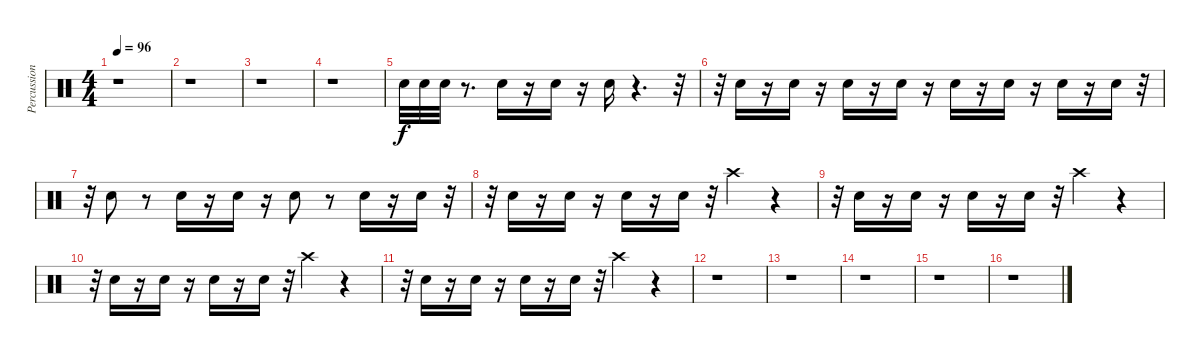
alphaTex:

\track ("Percussion" "Percussion") {instrument percussion}
\staff {score}
\articulation defaults
\ts (4 4)
\tempo 96
\clef neutral
\ks c
r.1{dy mf} |
r.1 |
r.1 |
r.1 |
"Snare (hit) 2".32{dy f} "Snare (hit) 2".32 "Snare (hit) 2".32 r.8{d} "Snare (hit) 2".16 r.16 "Snare (hit) 2".16 r.16 "Snare (hit) 2".16 r.4{d} r.32 |
r.32 "Snare (hit) 2".16 r.16 "Snare (hit) 2".16 r.16 "Snare (hit) 2".16 r.16 "Snare (hit) 2".16 r.16 "Snare (hit) 2".16 r.16 "Snare (hit) 2".16 r.16 "Snare (hit) 2".16 r.16 "Snare (hit) 2".16 r.32 |
r.32 "Snare (hit) 2".8 r.8 "Snare (hit) 2".16 r.16 "Snare (hit) 2".16 r.16 "Snare (hit) 2".8 r.8 "Snare (hit) 2".16 r.16 "Snare (hit) 2".16 r.32 |
r.32 "Snare (hit) 2".16 r.16 "Snare (hit) 2".16 r.16 "Snare (hit) 2".16 r.16 "Snare (hit) 2".16 r.32 "Crash high (hit)".4 r.4 |
r.32 "Snare (hit) 2".16 r.16 "Snare (hit) 2".16 r.16 "Snare (hit) 2".16 r.16 "Snare (hit) 2".16 r.32 "Crash high (hit)".4 r.4 |
r.32 "Snare (hit) 2".16 r.16 "Snare (hit) 2".16 r.16 "Snare (hit) 2".16 r.16 "Snare (hit) 2".16 r.32 "Crash high (hit)".4 r.4 |
r.32 "Snare (hit) 2".16 r.16 "Snare (hit) 2".16 r.16 "Snare (hit) 2".16 r.16 "Snare (hit) 2".16 r.32 "Crash high (hit)".4 r.4 |
r.1 |
r.1 |
r.1 |
r.1 |
r.1
